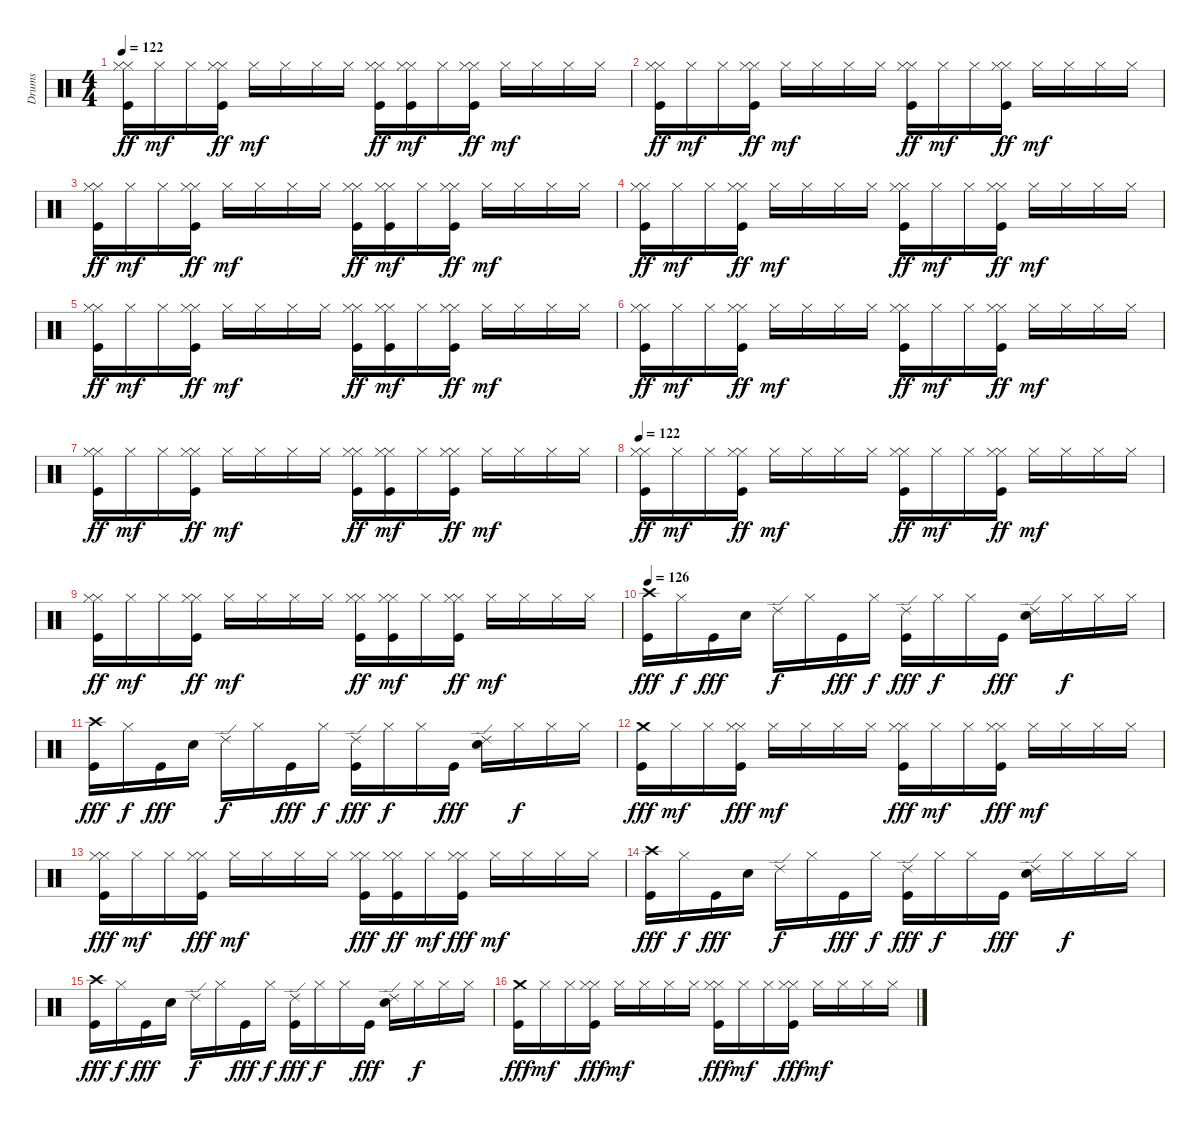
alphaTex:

\track ("Drums" "Drums") {instrument percussion}
\staff {score}
\articulation defaults
\ts (4 4)
\tempo 122
\clef neutral
\ks c
("Hi-Hat (closed)" "Hi-Hat (closed)" "Kick (hit)").16{dy ff} "Hi-Hat (closed)".16{dy mf} "Hi-Hat (closed)".16 ("Hi-Hat (closed)" "Hi-Hat (closed)" "Kick (hit)").16{dy ff} "Hi-Hat (closed)".16{dy mf} "Hi-Hat (closed)".16 "Hi-Hat (closed)".16 "Hi-Hat (closed)".16 ("Hi-Hat (closed)" "Hi-Hat (closed)" "Kick (hit)").16{dy ff} ("Hi-Hat (closed)" "Hi-Hat (closed)" "Kick (hit)").16{dy mf} "Hi-Hat (closed)".16 ("Hi-Hat (closed)" "Hi-Hat (closed)" "Kick (hit)").16{dy ff} "Hi-Hat (closed)".16{dy mf} "Hi-Hat (closed)".16 "Hi-Hat (closed)".16 "Hi-Hat (closed)".16 |
("Hi-Hat (closed)" "Hi-Hat (closed)" "Kick (hit)").16{dy ff} "Hi-Hat (closed)".16{dy mf} "Hi-Hat (closed)".16 ("Hi-Hat (closed)" "Hi-Hat (closed)" "Kick (hit)").16{dy ff} "Hi-Hat (closed)".16{dy mf} "Hi-Hat (closed)".16 "Hi-Hat (closed)".16 "Hi-Hat (closed)".16 ("Hi-Hat (closed)" "Hi-Hat (closed)" "Kick (hit)").16{dy ff} "Hi-Hat (closed)".16{dy mf} "Hi-Hat (closed)".16 ("Hi-Hat (closed)" "Hi-Hat (closed)" "Kick (hit)").16{dy ff} "Hi-Hat (closed)".16{dy mf} "Hi-Hat (closed)".16 "Hi-Hat (closed)".16 "Hi-Hat (closed)".16 |
("Hi-Hat (closed)" "Hi-Hat (closed)" "Kick (hit)").16{dy ff} "Hi-Hat (closed)".16{dy mf} "Hi-Hat (closed)".16 ("Hi-Hat (closed)" "Hi-Hat (closed)" "Kick (hit)").16{dy ff} "Hi-Hat (closed)".16{dy mf} "Hi-Hat (closed)".16 "Hi-Hat (closed)".16 "Hi-Hat (closed)".16 ("Hi-Hat (closed)" "Hi-Hat (closed)" "Kick (hit)").16{dy ff} ("Hi-Hat (closed)" "Hi-Hat (closed)" "Kick (hit)").16{dy mf} "Hi-Hat (closed)".16 ("Hi-Hat (closed)" "Hi-Hat (closed)" "Kick (hit)").16{dy ff} "Hi-Hat (closed)".16{dy mf} "Hi-Hat (closed)".16 "Hi-Hat (closed)".16 "Hi-Hat (closed)".16 |
("Hi-Hat (closed)" "Hi-Hat (closed)" "Kick (hit)").16{dy ff} "Hi-Hat (closed)".16{dy mf} "Hi-Hat (closed)".16 ("Hi-Hat (closed)" "Hi-Hat (closed)" "Kick (hit)").16{dy ff} "Hi-Hat (closed)".16{dy mf} "Hi-Hat (closed)".16 "Hi-Hat (closed)".16 "Hi-Hat (closed)".16 ("Hi-Hat (closed)" "Hi-Hat (closed)" "Kick (hit)").16{dy ff} "Hi-Hat (closed)".16{dy mf} "Hi-Hat (closed)".16 ("Hi-Hat (closed)" "Hi-Hat (closed)" "Kick (hit)").16{dy ff} "Hi-Hat (closed)".16{dy mf} "Hi-Hat (closed)".16 "Hi-Hat (closed)".16 "Hi-Hat (closed)".16 |
("Hi-Hat (closed)" "Hi-Hat (closed)" "Kick (hit)").16{dy ff} "Hi-Hat (closed)".16{dy mf} "Hi-Hat (closed)".16 ("Hi-Hat (closed)" "Hi-Hat (closed)" "Kick (hit)").16{dy ff} "Hi-Hat (closed)".16{dy mf} "Hi-Hat (closed)".16 "Hi-Hat (closed)".16 "Hi-Hat (closed)".16 ("Hi-Hat (closed)" "Hi-Hat (closed)" "Kick (hit)").16{dy ff} ("Hi-Hat (closed)" "Hi-Hat (closed)" "Kick (hit)").16{dy mf} "Hi-Hat (closed)".16 ("Hi-Hat (closed)" "Hi-Hat (closed)" "Kick (hit)").16{dy ff} "Hi-Hat (closed)".16{dy mf} "Hi-Hat (closed)".16 "Hi-Hat (closed)".16 "Hi-Hat (closed)".16 |
("Hi-Hat (closed)" "Hi-Hat (closed)" "Kick (hit)").16{dy ff} "Hi-Hat (closed)".16{dy mf} "Hi-Hat (closed)".16 ("Hi-Hat (closed)" "Hi-Hat (closed)" "Kick (hit)").16{dy ff} "Hi-Hat (closed)".16{dy mf} "Hi-Hat (closed)".16 "Hi-Hat (closed)".16 "Hi-Hat (closed)".16 ("Hi-Hat (closed)" "Hi-Hat (closed)" "Kick (hit)").16{dy ff} "Hi-Hat (closed)".16{dy mf} "Hi-Hat (closed)".16 ("Hi-Hat (closed)" "Hi-Hat (closed)" "Kick (hit)").16{dy ff} "Hi-Hat (closed)".16{dy mf} "Hi-Hat (closed)".16 "Hi-Hat (closed)".16 "Hi-Hat (closed)".16 |
("Hi-Hat (closed)" "Hi-Hat (closed)" "Kick (hit)").16{dy ff} "Hi-Hat (closed)".16{dy mf} "Hi-Hat (closed)".16 ("Hi-Hat (closed)" "Hi-Hat (closed)" "Kick (hit)").16{dy ff} "Hi-Hat (closed)".16{dy mf} "Hi-Hat (closed)".16 "Hi-Hat (closed)".16 "Hi-Hat (closed)".16 ("Hi-Hat (closed)" "Hi-Hat (closed)" "Kick (hit)").16{dy ff} ("Hi-Hat (closed)" "Hi-Hat (closed)" "Kick (hit)").16{dy mf} "Hi-Hat (closed)".16 ("Hi-Hat (closed)" "Hi-Hat (closed)" "Kick (hit)").16{dy ff} "Hi-Hat (closed)".16{dy mf} "Hi-Hat (closed)".16 "Hi-Hat (closed)".16 "Hi-Hat (closed)".16 |
\tempo 122
("Hi-Hat (closed)" "Hi-Hat (closed)" "Kick (hit)").16{dy ff} "Hi-Hat (closed)".16{dy mf} "Hi-Hat (closed)".16 ("Hi-Hat (closed)" "Hi-Hat (closed)" "Kick (hit)").16{dy ff} "Hi-Hat (closed)".16{dy mf} "Hi-Hat (closed)".16 "Hi-Hat (closed)".16 "Hi-Hat (closed)".16 ("Hi-Hat (closed)" "Hi-Hat (closed)" "Kick (hit)").16{dy ff} "Hi-Hat (closed)".16{dy mf} "Hi-Hat (closed)".16 ("Hi-Hat (closed)" "Hi-Hat (closed)" "Kick (hit)").16{dy ff} "Hi-Hat (closed)".16{dy mf} "Hi-Hat (closed)".16 "Hi-Hat (closed)".16 "Hi-Hat (closed)".16 |
("Hi-Hat (closed)" "Hi-Hat (closed)" "Kick (hit)").16{dy ff} "Hi-Hat (closed)".16{dy mf} "Hi-Hat (closed)".16 ("Hi-Hat (closed)" "Hi-Hat (closed)" "Kick (hit)").16{dy ff} "Hi-Hat (closed)".16{dy mf} "Hi-Hat (closed)".16 "Hi-Hat (closed)".16 "Hi-Hat (closed)".16 ("Hi-Hat (closed)" "Hi-Hat (closed)" "Kick (hit)").16{dy ff} ("Hi-Hat (closed)" "Hi-Hat (closed)" "Kick (hit)").16{dy mf} "Hi-Hat (closed)".16 ("Hi-Hat (closed)" "Hi-Hat (closed)" "Kick (hit)").16{dy ff} "Hi-Hat (closed)".16{dy mf} "Hi-Hat (closed)".16 "Hi-Hat (closed)".16 "Hi-Hat (closed)".16 |
\tempo 126
("Crash high (hit)" "Kick (hit)").16{dy fff} "Hi-Hat (closed)".16{dy f} "Kick (hit)".16{dy fff} "Snare (hit) 2".16 "Ride (edge) 2".16{dy f} "Hi-Hat (closed)".16 "Kick (hit)".16{dy fff} "Hi-Hat (closed)".16{dy f} ("Ride (edge) 2" "Kick (hit)").16{dy fff} "Hi-Hat (closed)".16{dy f} "Hi-Hat (closed)".16 "Kick (hit)".16{dy fff} ("Ride (edge) 2" "Snare (hit) 2").16 "Hi-Hat (closed)".16{dy f} "Hi-Hat (closed)".16 "Hi-Hat (closed)".16 |
("Crash high (hit)" "Kick (hit)").16{dy fff} "Hi-Hat (closed)".16{dy f} "Kick (hit)".16{dy fff} "Snare (hit) 2".16 "Ride (edge) 2".16{dy f} "Hi-Hat (closed)".16 "Kick (hit)".16{dy fff} "Hi-Hat (closed)".16{dy f} ("Ride (edge) 2" "Kick (hit)").16{dy fff} "Hi-Hat (closed)".16{dy f} "Hi-Hat (closed)".16 "Kick (hit)".16{dy fff} ("Ride (edge) 2" "Snare (hit) 2").16 "Hi-Hat (closed)".16{dy f} "Hi-Hat (closed)".16 "Hi-Hat (closed)".16 |
("Crash medium (hit)" "Kick (hit)").16{dy fff} "Hi-Hat (closed)".16{dy mf} "Hi-Hat (closed)".16 ("Hi-Hat (closed)" "Hi-Hat (closed)" "Kick (hit)").16{dy fff} "Hi-Hat (closed)".16{dy mf} "Hi-Hat (closed)".16 "Hi-Hat (closed)".16 "Hi-Hat (closed)".16 ("Hi-Hat (closed)" "Hi-Hat (closed)" "Kick (hit)").16{dy fff} "Hi-Hat (closed)".16{dy mf} "Hi-Hat (closed)".16 ("Hi-Hat (closed)" "Hi-Hat (closed)" "Kick (hit)").16{dy fff} "Hi-Hat (closed)".16{dy mf} "Hi-Hat (closed)".16 "Hi-Hat (closed)".16 "Hi-Hat (closed)".16 |
("Hi-Hat (closed)" "Hi-Hat (closed)" "Kick (hit)").16{dy fff} "Hi-Hat (closed)".16{dy mf} "Hi-Hat (closed)".16 ("Hi-Hat (closed)" "Hi-Hat (closed)" "Kick (hit)").16{dy fff} "Hi-Hat (closed)".16{dy mf} "Hi-Hat (closed)".16 "Hi-Hat (closed)".16 "Hi-Hat (closed)".16 ("Hi-Hat (closed)" "Hi-Hat (closed)" "Kick (hit)").16{dy fff} ("Hi-Hat (closed)" "Hi-Hat (closed)" "Kick (hit)").16{dy ff} "Hi-Hat (closed)".16{dy mf} ("Hi-Hat (closed)" "Hi-Hat (closed)" "Kick (hit)").16{dy fff} "Hi-Hat (closed)".16{dy mf} "Hi-Hat (closed)".16 "Hi-Hat (closed)".16 "Hi-Hat (closed)".16 |
("Crash high (hit)" "Kick (hit)").16{dy fff} "Hi-Hat (closed)".16{dy f} "Kick (hit)".16{dy fff} "Snare (hit) 2".16 "Ride (edge) 2".16{dy f} "Hi-Hat (closed)".16 "Kick (hit)".16{dy fff} "Hi-Hat (closed)".16{dy f} ("Ride (edge) 2" "Kick (hit)").16{dy fff} "Hi-Hat (closed)".16{dy f} "Hi-Hat (closed)".16 "Kick (hit)".16{dy fff} ("Ride (edge) 2" "Snare (hit) 2").16 "Hi-Hat (closed)".16{dy f} "Hi-Hat (closed)".16 "Hi-Hat (closed)".16 |
("Crash high (hit)" "Kick (hit)").16{dy fff} "Hi-Hat (closed)".16{dy f} "Kick (hit)".16{dy fff} "Snare (hit) 2".16 "Ride (edge) 2".16{dy f} "Hi-Hat (closed)".16 "Kick (hit)".16{dy fff} "Hi-Hat (closed)".16{dy f} ("Ride (edge) 2" "Kick (hit)").16{dy fff} "Hi-Hat (closed)".16{dy f} "Hi-Hat (closed)".16 "Kick (hit)".16{dy fff} ("Ride (edge) 2" "Snare (hit) 2").16 "Hi-Hat (closed)".16{dy f} "Hi-Hat (closed)".16 "Hi-Hat (closed)".16 |
("Crash medium (hit)" "Kick (hit)").16{dy fff} "Hi-Hat (closed)".16{dy mf} "Hi-Hat (closed)".16 ("Hi-Hat (closed)" "Hi-Hat (closed)" "Kick (hit)").16{dy fff} "Hi-Hat (closed)".16{dy mf} "Hi-Hat (closed)".16 "Hi-Hat (closed)".16 "Hi-Hat (closed)".16 ("Hi-Hat (closed)" "Hi-Hat (closed)" "Kick (hit)").16{dy fff} "Hi-Hat (closed)".16{dy mf} "Hi-Hat (closed)".16 ("Hi-Hat (closed)" "Hi-Hat (closed)" "Kick (hit)").16{dy fff} "Hi-Hat (closed)".16{dy mf} "Hi-Hat (closed)".16 "Hi-Hat (closed)".16 "Hi-Hat (closed)".16
